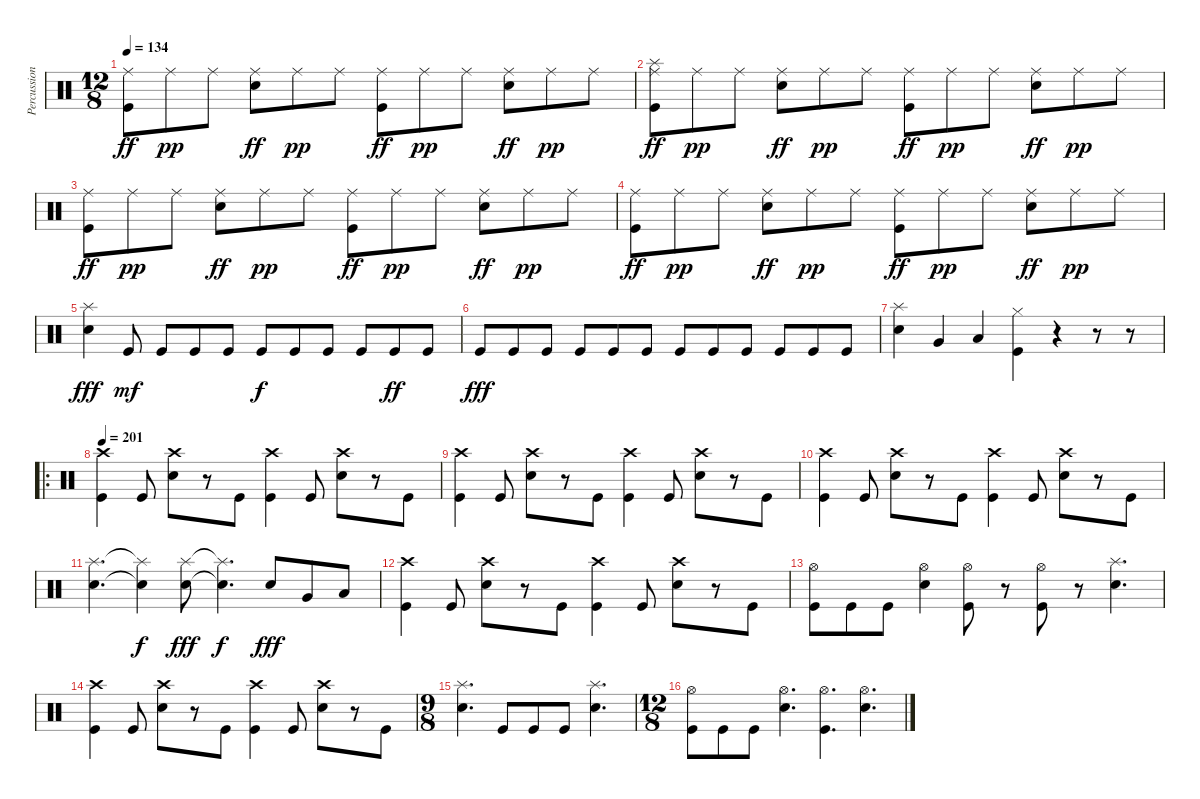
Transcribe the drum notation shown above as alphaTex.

\track ("Percussion" "Percussion") {instrument percussion}
\staff {score}
\articulation defaults
\ts (12 8)
\tempo 134
\clef neutral
\ks c
("Ride (middle)" "Kick (hit)").8{dy ff} "Ride (middle)".8{dy pp} "Ride (middle)".8 ("Ride (middle)" "Snare (hit) 2").8{dy ff} "Ride (middle)".8{dy pp} "Ride (middle)".8 ("Ride (middle)" "Kick (hit)").8{dy ff} "Ride (middle)".8{dy pp} "Ride (middle)".8 ("Ride (middle)" "Snare (hit) 2").8{dy ff} "Ride (middle)".8{dy pp} "Ride (middle)".8 |
("Splash (hit)" "Ride (middle)" "Kick (hit)").8{dy ff} "Ride (middle)".8{dy pp} "Ride (middle)".8 ("Ride (middle)" "Snare (hit) 2").8{dy ff} "Ride (middle)".8{dy pp} "Ride (middle)".8 ("Ride (middle)" "Kick (hit)").8{dy ff} "Ride (middle)".8{dy pp} "Ride (middle)".8 ("Ride (middle)" "Snare (hit) 2").8{dy ff} "Ride (middle)".8{dy pp} "Ride (middle)".8 |
("Ride (middle)" "Kick (hit)").8{dy ff} "Ride (middle)".8{dy pp} "Ride (middle)".8 ("Ride (middle)" "Snare (hit) 2").8{dy ff} "Ride (middle)".8{dy pp} "Ride (middle)".8 ("Ride (middle)" "Kick (hit)").8{dy ff} "Ride (middle)".8{dy pp} "Ride (middle)".8 ("Ride (middle)" "Snare (hit) 2").8{dy ff} "Ride (middle)".8{dy pp} "Ride (middle)".8 |
("Ride (middle)" "Kick (hit)").8{dy ff} "Ride (middle)".8{dy pp} "Ride (middle)".8 ("Ride (middle)" "Snare (hit) 2").8{dy ff} "Ride (middle)".8{dy pp} "Ride (middle)".8 ("Ride (middle)" "Kick (hit)").8{dy ff} "Ride (middle)".8{dy pp} "Ride (middle)".8 ("Ride (middle)" "Snare (hit) 2").8{dy ff} "Ride (middle)".8{dy pp} "Ride (middle)".8 |
("Splash (hit)" "Snare (hit) 2").4{dy fff} "Kick (hit)".8{dy mf} "Kick (hit)".8 "Kick (hit)".8 "Kick (hit)".8 "Kick (hit)".8{dy f} "Kick (hit)".8 "Kick (hit)".8 "Kick (hit)".8 "Kick (hit)".8{dy ff} "Kick (hit)".8 |
"Kick (hit)".8{dy fff} "Kick (hit)".8 "Kick (hit)".8 "Kick (hit)".8 "Kick (hit)".8 "Kick (hit)".8 "Kick (hit)".8 "Kick (hit)".8 "Kick (hit)".8 "Kick (hit)".8 "Kick (hit)".8 "Kick (hit)".8 |
("Splash (hit)" "Snare (hit) 2").4 "Very Low Tom (hit)".4 "Low Floor Tom (hit)".4 ("Kick (hit)" "Hi-Hat (closed)").4 r.4 r.8 r.8 |
\ro
\tempo 201
("Crash high (hit)" "Kick (hit)").4 "Kick (hit)".8 ("Crash high (hit)" "Snare (hit) 2").8 r.8 "Kick (hit)".8 ("Crash high (hit)" "Kick (hit)").4 "Kick (hit)".8 ("Crash high (hit)" "Snare (hit) 2").8 r.8 "Kick (hit)".8 |
("Crash high (hit)" "Kick (hit)").4 "Kick (hit)".8 ("Crash high (hit)" "Snare (hit) 2").8 r.8 "Kick (hit)".8 ("Crash high (hit)" "Kick (hit)").4 "Kick (hit)".8 ("Crash high (hit)" "Snare (hit) 2").8 r.8 "Kick (hit)".8 |
("Crash high (hit)" "Kick (hit)").4 "Kick (hit)".8 ("Crash high (hit)" "Snare (hit) 2").8 r.8 "Kick (hit)".8 ("Crash high (hit)" "Kick (hit)").4 "Kick (hit)".8 ("Crash high (hit)" "Snare (hit) 2").8 r.8 "Kick (hit)".8 |
("Splash (hit)" "Snare (hit) 2").4{d} ("Splash (hit)"{t} "Snare (hit) 2"{t}).4{dy f} ("Snare (hit) 2" "Splash (hit)").8{dy fff} ("Snare (hit) 2"{t} "Splash (hit)"{t}).4{d dy f} "Snare (hit) 2".8{dy fff} "Very Low Tom (hit)".8 "Low Floor Tom (hit)".8 |
("Crash high (hit)" "Kick (hit)").4 "Kick (hit)".8 ("Crash high (hit)" "Snare (hit) 2").8 r.8 "Kick (hit)".8 ("Crash high (hit)" "Kick (hit)").4 "Kick (hit)".8 ("Crash high (hit)" "Snare (hit) 2").8 r.8 "Kick (hit)".8 |
("Hi-Hat (open)" "Kick (hit)").8 "Kick (hit)".8 "Kick (hit)".8 ("Hi-Hat (open)" "Snare (hit) 2").4 ("Hi-Hat (open)" "Kick (hit)").8 r.8 ("Hi-Hat (open)" "Kick (hit)").8 r.8 ("Splash (hit)" "Snare (hit) 2").4{d} |
("Crash high (hit)" "Kick (hit)").4 "Kick (hit)".8 ("Crash high (hit)" "Snare (hit) 2").8 r.8 "Kick (hit)".8 ("Crash high (hit)" "Kick (hit)").4 "Kick (hit)".8 ("Crash high (hit)" "Snare (hit) 2").8 r.8 "Kick (hit)".8 |
\ts (9 8)
("Splash (hit)" "Snare (hit) 2").4{d} "Kick (hit)".8 "Kick (hit)".8 "Kick (hit)".8 ("Splash (hit)" "Snare (hit) 2").4{d} |
\ts (12 8)
("Hi-Hat (open)" "Kick (hit)").8 "Kick (hit)".8 "Kick (hit)".8 ("Hi-Hat (open)" "Snare (hit) 2").4{d} ("Hi-Hat (open)" "Kick (hit)").4{d} ("Hi-Hat (open)" "Snare (hit) 2").4{d}
